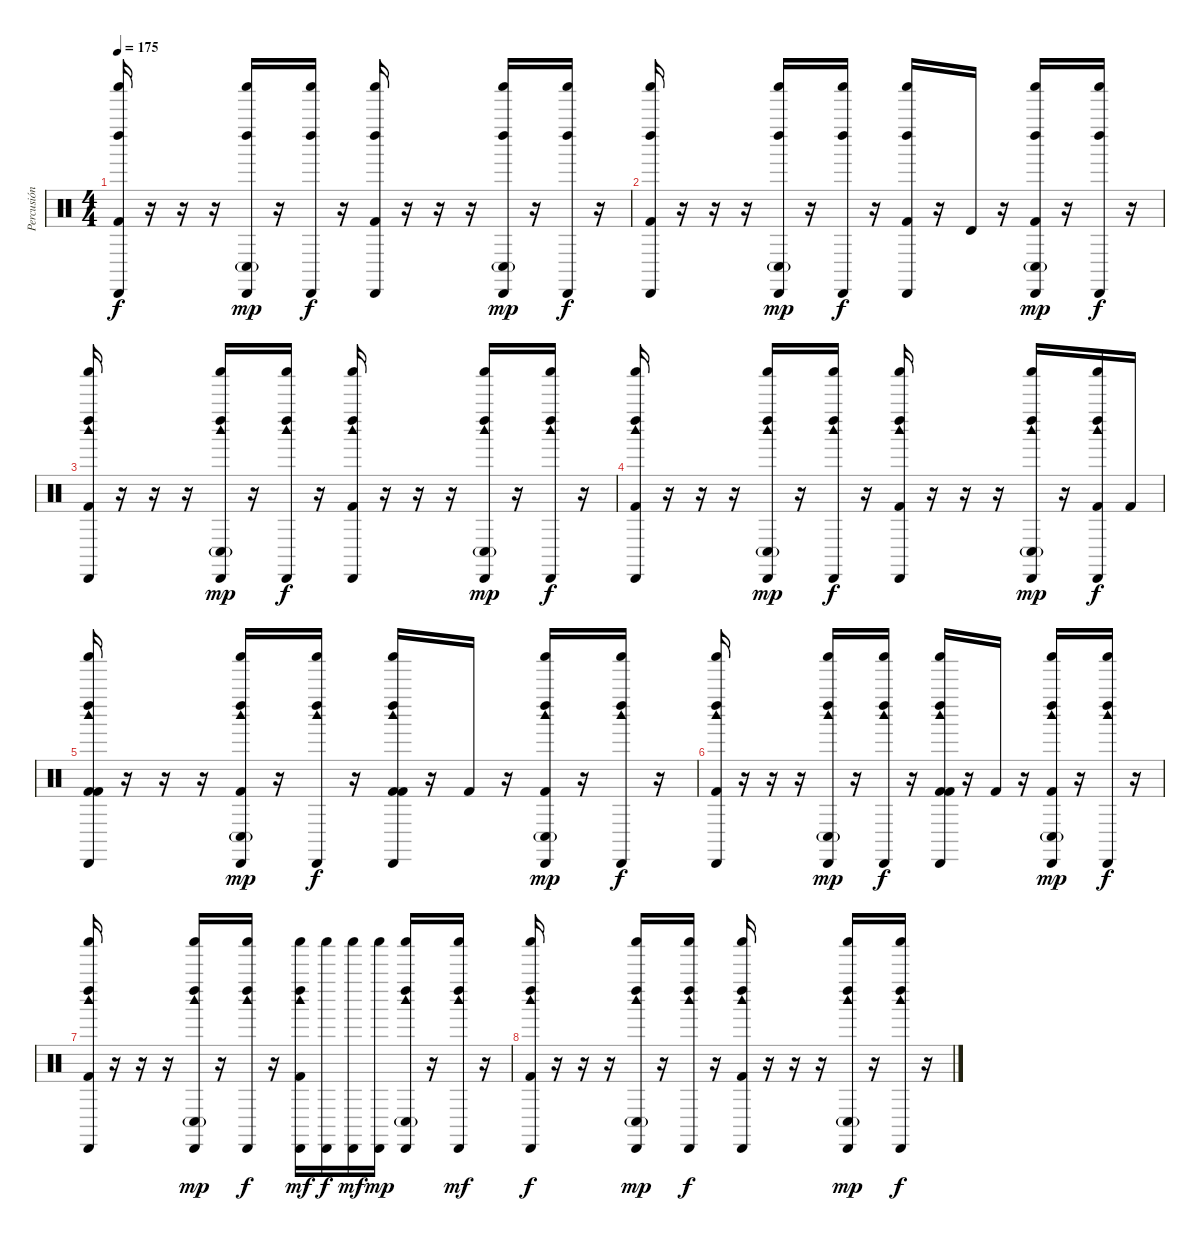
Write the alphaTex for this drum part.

\track ("Percusión" "Percusión") {instrument percussion}
\staff {score}
\articulation defaults
\ts (4 4)
\tempo 175
\clef neutral
\ks c
("Cabasa (hit)" "Shaker (hit)" "Kick (hit) 2" "Left Maraca (hit)").16{dy f} r.16 r.16 r.16 ("Cabasa (hit)" "Shaker (hit)" "Conga low (hit)"{g} "Left Maraca (hit)").16{dy mp} r.16 ("Cabasa (hit)" "Shaker (hit)" "Left Maraca (hit)").16{dy f} r.16 ("Cabasa (hit)" "Shaker (hit)" "Kick (hit) 2" "Left Maraca (hit)").16 r.16 r.16 r.16 ("Cabasa (hit)" "Shaker (hit)" "Conga low (hit)"{g} "Left Maraca (hit)").16{dy mp} r.16 ("Cabasa (hit)" "Shaker (hit)" "Left Maraca (hit)").16{dy f} r.16 |
("Cabasa (hit)" "Shaker (hit)" "Kick (hit) 2" "Left Maraca (hit)").16 r.16 r.16 r.16 ("Cabasa (hit)" "Shaker (hit)" "Conga low (hit)"{g} "Left Maraca (hit)").16{dy mp} r.16 ("Cabasa (hit)" "Shaker (hit)" "Left Maraca (hit)").16{dy f} r.16 ("Cabasa (hit)" "Shaker (hit)" "Kick (hit) 2" "Left Maraca (hit)").16 r.16 "Timbale high (hit)".16 r.16 ("Cabasa (hit)" "Shaker (hit)" "Conga low (hit)"{g} "Left Maraca (hit)" "Kick (hit) 2").16{dy mp} r.16 ("Cabasa (hit)" "Shaker (hit)" "Left Maraca (hit)").16{dy f} r.16 |
("Cabasa (hit)" "Shaker (hit)" "Kick (hit) 2" "Left Maraca (hit)" "Woodblock high (hit)").16 r.16 r.16 r.16 ("Cabasa (hit)" "Shaker (hit)" "Conga low (hit)"{g} "Left Maraca (hit)" "Woodblock high (hit)").16{dy mp} r.16 ("Cabasa (hit)" "Shaker (hit)" "Left Maraca (hit)" "Woodblock high (hit)").16{dy f} r.16 ("Cabasa (hit)" "Shaker (hit)" "Kick (hit) 2" "Left Maraca (hit)" "Woodblock high (hit)").16 r.16 r.16 r.16 ("Cabasa (hit)" "Shaker (hit)" "Conga low (hit)"{g} "Left Maraca (hit)" "Woodblock high (hit)").16{dy mp} r.16 ("Cabasa (hit)" "Shaker (hit)" "Left Maraca (hit)" "Woodblock high (hit)").16{dy f} r.16 |
("Cabasa (hit)" "Shaker (hit)" "Kick (hit) 2" "Left Maraca (hit)" "Woodblock high (hit)").16 r.16 r.16 r.16 ("Cabasa (hit)" "Shaker (hit)" "Conga low (hit)"{g} "Left Maraca (hit)" "Woodblock high (hit)").16{dy mp} r.16 ("Cabasa (hit)" "Shaker (hit)" "Left Maraca (hit)" "Woodblock high (hit)").16{dy f} r.16 ("Cabasa (hit)" "Shaker (hit)" "Kick (hit) 2" "Left Maraca (hit)" "Woodblock high (hit)").16 r.16 r.16 r.16 ("Cabasa (hit)" "Shaker (hit)" "Conga low (hit)"{g} "Left Maraca (hit)" "Woodblock high (hit)").16{dy mp} r.16 ("Kick (hit) 2" "Cabasa (hit)" "Shaker (hit)" "Left Maraca (hit)" "Woodblock high (hit)").16{dy f} "Kick (hit) 2".16 |
("Kick (hit) 2" "Cabasa (hit)" "Shaker (hit)" "Kick (hit) 2" "Left Maraca (hit)" "Woodblock high (hit)").16 r.16 r.16 r.16 ("Kick (hit) 2" "Cabasa (hit)" "Shaker (hit)" "Conga low (hit)"{g} "Left Maraca (hit)" "Woodblock high (hit)").16{dy mp} r.16 ("Cabasa (hit)" "Shaker (hit)" "Left Maraca (hit)" "Woodblock high (hit)").16{dy f} r.16 ("Kick (hit) 2" "Cabasa (hit)" "Shaker (hit)" "Kick (hit) 2" "Left Maraca (hit)" "Woodblock high (hit)").16 r.16 "Kick (hit) 2".16 r.16 ("Kick (hit) 2" "Cabasa (hit)" "Shaker (hit)" "Conga low (hit)"{g} "Left Maraca (hit)" "Woodblock high (hit)").16{dy mp} r.16 ("Cabasa (hit)" "Shaker (hit)" "Left Maraca (hit)" "Woodblock high (hit)").16{dy f} r.16 |
("Cabasa (hit)" "Shaker (hit)" "Kick (hit) 2" "Left Maraca (hit)" "Woodblock high (hit)").16 r.16 r.16 r.16 ("Cabasa (hit)" "Shaker (hit)" "Conga low (hit)"{g} "Left Maraca (hit)" "Woodblock high (hit)").16{dy mp} r.16 ("Cabasa (hit)" "Shaker (hit)" "Left Maraca (hit)" "Woodblock high (hit)").16{dy f} r.16 ("Kick (hit) 2" "Cabasa (hit)" "Shaker (hit)" "Kick (hit) 2" "Left Maraca (hit)" "Woodblock high (hit)").16 r.16 "Kick (hit) 2".16 r.16 ("Kick (hit) 2" "Cabasa (hit)" "Shaker (hit)" "Conga low (hit)"{g} "Left Maraca (hit)" "Woodblock high (hit)").16{dy mp} r.16 ("Cabasa (hit)" "Shaker (hit)" "Left Maraca (hit)" "Woodblock high (hit)").16{dy f} r.16 |
("Cabasa (hit)" "Shaker (hit)" "Kick (hit) 2" "Left Maraca (hit)" "Woodblock high (hit)").16 r.16 r.16 r.16 ("Cabasa (hit)" "Shaker (hit)" "Conga low (hit)"{g} "Left Maraca (hit)" "Woodblock high (hit)").16{dy mp} r.16 ("Cabasa (hit)" "Shaker (hit)" "Left Maraca (hit)" "Woodblock high (hit)").16{dy f} r.16 ("Cabasa (hit)" "Shaker (hit)" "Left Maraca (hit)" "Woodblock high (hit)" "Kick (hit) 2").16{dy mf} ("Cabasa (hit)" "Shaker (hit)").16{dy f} ("Cabasa (hit)" "Shaker (hit)").16{dy mf} ("Cabasa (hit)" "Shaker (hit)").16{dy mp} ("Cabasa (hit)" "Shaker (hit)" "Left Maraca (hit)" "Woodblock high (hit)" "Conga low (hit)"{g}).16 r.16 ("Cabasa (hit)" "Shaker (hit)" "Left Maraca (hit)" "Woodblock high (hit)").16{dy mf} r.16 |
("Cabasa (hit)" "Shaker (hit)" "Kick (hit) 2" "Left Maraca (hit)" "Woodblock high (hit)").16{dy f} r.16 r.16 r.16 ("Cabasa (hit)" "Shaker (hit)" "Conga low (hit)"{g} "Left Maraca (hit)" "Woodblock high (hit)").16{dy mp} r.16 ("Cabasa (hit)" "Shaker (hit)" "Left Maraca (hit)" "Woodblock high (hit)").16{dy f} r.16 ("Cabasa (hit)" "Shaker (hit)" "Kick (hit) 2" "Left Maraca (hit)" "Woodblock high (hit)").16 r.16 r.16 r.16 ("Cabasa (hit)" "Shaker (hit)" "Conga low (hit)"{g} "Left Maraca (hit)" "Woodblock high (hit)").16{dy mp} r.16 ("Cabasa (hit)" "Shaker (hit)" "Left Maraca (hit)" "Woodblock high (hit)").16{dy f} r.16
